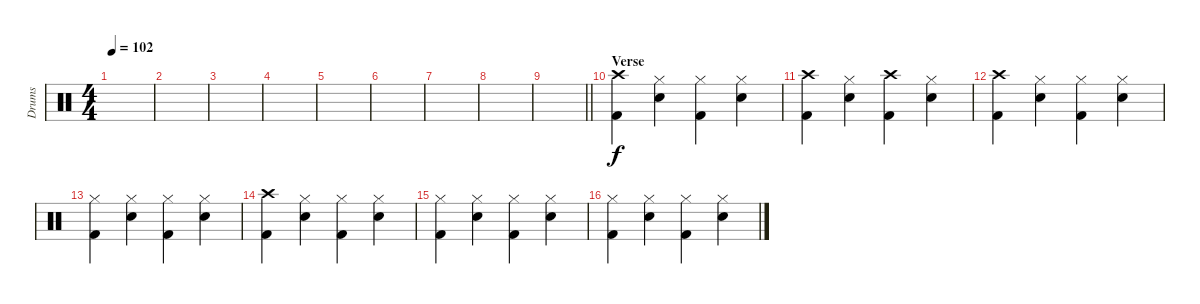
\track ("Drums" "Drums") {instrument percussion}
\staff {score}
\articulation defaults
\ts (4 4)
\tempo 102
\clef neutral
\ks c
|
|
|
|
|
|
|
|
\barLineRight lightlight
|
\section ("" "Verse")
("Kick (hit) 2" "Crash high (hit)").4 ("Snare (hit) 2" "Hi-Hat (closed)").4 ("Kick (hit) 2" "Hi-Hat (closed)").4 ("Snare (hit) 2" "Hi-Hat (closed)").4 |
("Kick (hit) 2" "Crash high (hit)").4 ("Snare (hit) 2" "Hi-Hat (closed)").4 ("Kick (hit) 2" "Crash high (hit)").4 ("Snare (hit) 2" "Hi-Hat (closed)").4 |
("Kick (hit) 2" "Crash high (hit)").4 ("Snare (hit) 2" "Hi-Hat (closed)").4 ("Kick (hit) 2" "Hi-Hat (closed)").4 ("Snare (hit) 2" "Hi-Hat (closed)").4 |
("Kick (hit) 2" "Hi-Hat (closed)").4 ("Snare (hit) 2" "Hi-Hat (closed)").4 ("Kick (hit) 2" "Hi-Hat (closed)").4 ("Snare (hit) 2" "Hi-Hat (closed)").4 |
("Kick (hit) 2" "Crash high (hit)").4 ("Snare (hit) 2" "Hi-Hat (closed)").4 ("Kick (hit) 2" "Hi-Hat (closed)").4 ("Snare (hit) 2" "Hi-Hat (closed)").4 |
("Kick (hit) 2" "Hi-Hat (closed)").4 ("Snare (hit) 2" "Hi-Hat (closed)").4 ("Kick (hit) 2" "Hi-Hat (closed)").4 ("Snare (hit) 2" "Hi-Hat (closed)").4 |
("Kick (hit) 2" "Hi-Hat (closed)").4 ("Snare (hit) 2" "Hi-Hat (closed)").4 ("Kick (hit) 2" "Hi-Hat (closed)").4 ("Snare (hit) 2" "Hi-Hat (closed)").4
